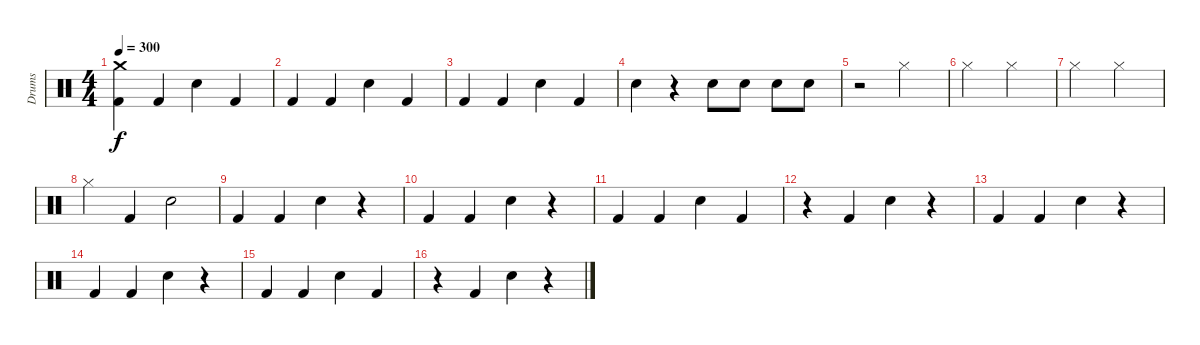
\track ("Drums" "Drums") {instrument percussion}
\staff {score}
\articulation defaults
\ts (4 4)
\tempo 300
\clef neutral
\ks c
("Crash medium (hit)" "Kick (hit) 2").4{dy f} "Kick (hit) 2".4 "Snare (hit) 2".4 "Kick (hit) 2".4 |
"Kick (hit) 2".4 "Kick (hit) 2".4 "Snare (hit) 2".4 "Kick (hit) 2".4 |
"Kick (hit) 2".4 "Kick (hit) 2".4 "Snare (hit) 2".4 "Kick (hit) 2".4 |
"Snare (hit) 2".4 r.4 "Snare (hit) 2".8 "Snare (hit) 2".8 "Snare (hit) 2".8 "Snare (hit) 2".8 |
r.2 "Hi-Hat (closed)".2 |
"Hi-Hat (closed)".2 "Hi-Hat (closed)".2 |
"Hi-Hat (closed)".2 "Hi-Hat (closed)".2 |
"Hi-Hat (closed)".4 "Kick (hit) 2".4 "Snare (hit) 2".2 |
"Kick (hit) 2".4 "Kick (hit) 2".4 "Snare (hit) 2".4 r.4 |
"Kick (hit) 2".4 "Kick (hit) 2".4 "Snare (hit) 2".4 r.4 |
"Kick (hit) 2".4 "Kick (hit) 2".4 "Snare (hit) 2".4 "Kick (hit) 2".4 |
r.4 "Kick (hit) 2".4 "Snare (hit) 2".4 r.4 |
"Kick (hit) 2".4 "Kick (hit) 2".4 "Snare (hit) 2".4 r.4 |
"Kick (hit) 2".4 "Kick (hit) 2".4 "Snare (hit) 2".4 r.4 |
"Kick (hit) 2".4 "Kick (hit) 2".4 "Snare (hit) 2".4 "Kick (hit) 2".4 |
r.4 "Kick (hit) 2".4 "Snare (hit) 2".4 r.4
